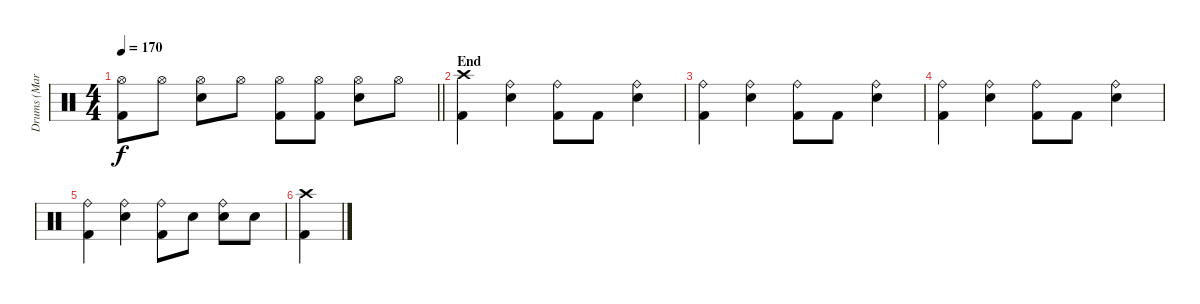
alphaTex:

\track ("Drums (Marky)" "Drums (Mar") {instrument percussion}
\staff {score}
\articulation defaults
\ts (4 4)
\tempo 170
\clef neutral
\barLineRight lightlight
\ks c
("Hi-Hat (open)" "Kick (hit) 2").8{dy f} "Hi-Hat (open)".8 ("Hi-Hat (open)" "Snare (hit) 2").8 "Hi-Hat (open)".8 ("Hi-Hat (open)" "Kick (hit) 2").8 ("Hi-Hat (open)" "Kick (hit) 2").8 ("Hi-Hat (open)" "Snare (hit) 2").8 "Hi-Hat (open)".8 |
\section ("" "End")
("Crash high (hit)" "Kick (hit) 2").4 ("Ride (bell)" "Snare (hit) 2").4 ("Ride (bell)" "Kick (hit) 2").8 "Kick (hit) 2".8 ("Ride (bell)" "Snare (hit) 2").4 |
("Ride (bell)" "Kick (hit) 2").4 ("Ride (bell)" "Snare (hit) 2").4 ("Ride (bell)" "Kick (hit) 2").8 "Kick (hit) 2".8 ("Ride (bell)" "Snare (hit) 2").4 |
("Ride (bell)" "Kick (hit) 2").4 ("Ride (bell)" "Snare (hit) 2").4 ("Ride (bell)" "Kick (hit) 2").8 "Kick (hit) 2".8 ("Ride (bell)" "Snare (hit) 2").4 |
("Ride (bell)" "Kick (hit) 2").4 ("Ride (bell)" "Snare (hit) 2").4 ("Ride (bell)" "Kick (hit) 2").8 "Snare (hit) 2".8 ("Ride (bell)" "Snare (hit) 2").8 "Snare (hit) 2".8 |
("Crash high (hit)" "Kick (hit) 2").4
